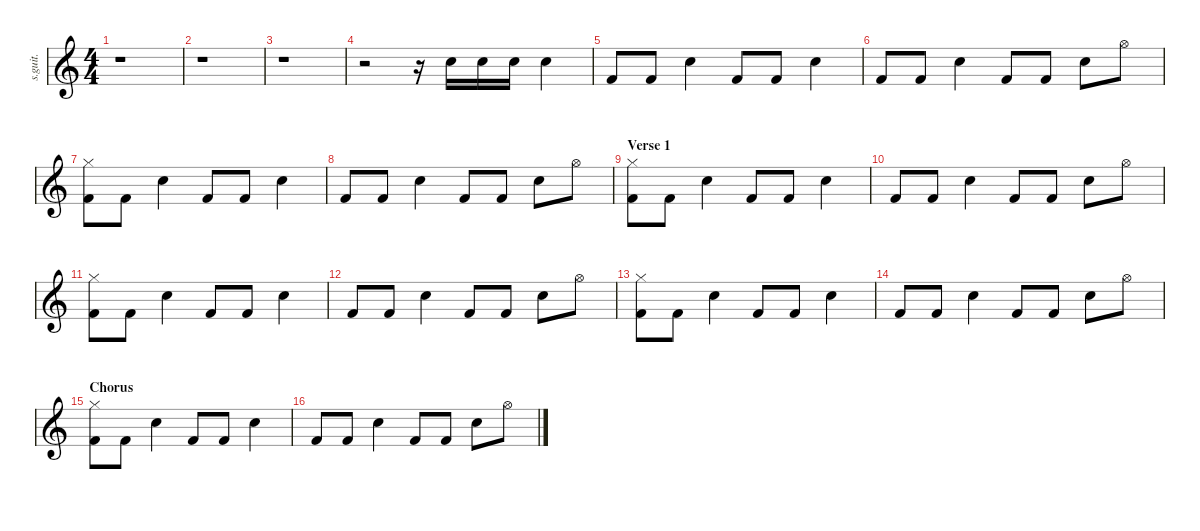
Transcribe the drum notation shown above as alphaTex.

\defaultSystemsLayout 4
\hideDynamics
\bracketExtendMode nobrackets
\track ("David Lovering" "s.guit.") {instrument percussion}
\staff {score}
\articulation defaults
\ts (4 4)
\beaming (8 2 2 2 2)
\tempo (81 hide)
\clef g2
\ks c
r.1{dy mf} |
r.1 |
r.1 |
r.2 r.16 "Snare (hit) 2".16{lyrics (0 "") lyrics (1 "") lyrics (2 "") lyrics (3 "") lyrics (4 "")} "Snare (hit) 2".16{lyrics (0 "") lyrics (1 "") lyrics (2 "") lyrics (3 "") lyrics (4 "")} "Snare (hit) 2".16{lyrics (0 "") lyrics (1 "") lyrics (2 "") lyrics (3 "") lyrics (4 "")} "Snare (hit) 2".4{lyrics (0 "") lyrics (1 "") lyrics (2 "") lyrics (3 "") lyrics (4 "")} |
"Kick (hit) 2".8{lyrics (0 "") lyrics (1 "") lyrics (2 "") lyrics (3 "") lyrics (4 "")} "Kick (hit) 2".8{lyrics (0 "") lyrics (1 "") lyrics (2 "") lyrics (3 "") lyrics (4 "")} "Snare (hit) 2".4{lyrics (0 "") lyrics (1 "") lyrics (2 "") lyrics (3 "") lyrics (4 "")} "Kick (hit) 2".8{lyrics (0 "") lyrics (1 "") lyrics (2 "") lyrics (3 "") lyrics (4 "")} "Kick (hit) 2".8{lyrics (0 "") lyrics (1 "") lyrics (2 "") lyrics (3 "") lyrics (4 "")} "Snare (hit) 2".4{lyrics (0 "") lyrics (1 "") lyrics (2 "") lyrics (3 "") lyrics (4 "")} |
"Kick (hit) 2".8{lyrics (0 "") lyrics (1 "") lyrics (2 "") lyrics (3 "") lyrics (4 "")} "Kick (hit) 2".8{lyrics (0 "") lyrics (1 "") lyrics (2 "") lyrics (3 "") lyrics (4 "")} "Snare (hit) 2".4{lyrics (0 "") lyrics (1 "") lyrics (2 "") lyrics (3 "") lyrics (4 "")} "Kick (hit) 2".8{lyrics (0 "") lyrics (1 "") lyrics (2 "") lyrics (3 "") lyrics (4 "")} "Kick (hit) 2".8{lyrics (0 "") lyrics (1 "") lyrics (2 "") lyrics (3 "") lyrics (4 "")} "Snare (hit) 2".8{lyrics (0 "") lyrics (1 "") lyrics (2 "") lyrics (3 "") lyrics (4 "")} "Hi-Hat (open)".8{lyrics (0 "") lyrics (1 "") lyrics (2 "") lyrics (3 "") lyrics (4 "")} |
("Hi-Hat (closed)" "Kick (hit) 2").8{lyrics (0 "") lyrics (1 "") lyrics (2 "") lyrics (3 "") lyrics (4 "")} "Kick (hit) 2".8{lyrics (0 "") lyrics (1 "") lyrics (2 "") lyrics (3 "") lyrics (4 "")} "Snare (hit) 2".4{lyrics (0 "") lyrics (1 "") lyrics (2 "") lyrics (3 "") lyrics (4 "")} "Kick (hit) 2".8{lyrics (0 "") lyrics (1 "") lyrics (2 "") lyrics (3 "") lyrics (4 "")} "Kick (hit) 2".8{lyrics (0 "") lyrics (1 "") lyrics (2 "") lyrics (3 "") lyrics (4 "")} "Snare (hit) 2".4{lyrics (0 "") lyrics (1 "") lyrics (2 "") lyrics (3 "") lyrics (4 "")} |
"Kick (hit) 2".8{lyrics (0 "") lyrics (1 "") lyrics (2 "") lyrics (3 "") lyrics (4 "")} "Kick (hit) 2".8{lyrics (0 "") lyrics (1 "") lyrics (2 "") lyrics (3 "") lyrics (4 "")} "Snare (hit) 2".4{lyrics (0 "") lyrics (1 "") lyrics (2 "") lyrics (3 "") lyrics (4 "")} "Kick (hit) 2".8{lyrics (0 "") lyrics (1 "") lyrics (2 "") lyrics (3 "") lyrics (4 "")} "Kick (hit) 2".8{lyrics (0 "") lyrics (1 "") lyrics (2 "") lyrics (3 "") lyrics (4 "")} "Snare (hit) 2".8{lyrics (0 "") lyrics (1 "") lyrics (2 "") lyrics (3 "") lyrics (4 "")} "Hi-Hat (open)".8{lyrics (0 "") lyrics (1 "") lyrics (2 "") lyrics (3 "") lyrics (4 "")} |
\section ("" "Verse 1")
("Kick (hit) 2" "Hi-Hat (closed)").8{lyrics (0 "") lyrics (1 "") lyrics (2 "") lyrics (3 "") lyrics (4 "")} "Kick (hit) 2".8{lyrics (0 "") lyrics (1 "") lyrics (2 "") lyrics (3 "") lyrics (4 "")} "Snare (hit) 2".4{lyrics (0 "") lyrics (1 "") lyrics (2 "") lyrics (3 "") lyrics (4 "")} "Kick (hit) 2".8{lyrics (0 "") lyrics (1 "") lyrics (2 "") lyrics (3 "") lyrics (4 "")} "Kick (hit) 2".8{lyrics (0 "") lyrics (1 "") lyrics (2 "") lyrics (3 "") lyrics (4 "")} "Snare (hit) 2".4{lyrics (0 "") lyrics (1 "") lyrics (2 "") lyrics (3 "") lyrics (4 "")} |
"Kick (hit) 2".8{lyrics (0 "") lyrics (1 "") lyrics (2 "") lyrics (3 "") lyrics (4 "")} "Kick (hit) 2".8{lyrics (0 "") lyrics (1 "") lyrics (2 "") lyrics (3 "") lyrics (4 "")} "Snare (hit) 2".4{lyrics (0 "") lyrics (1 "") lyrics (2 "") lyrics (3 "") lyrics (4 "")} "Kick (hit) 2".8{lyrics (0 "") lyrics (1 "") lyrics (2 "") lyrics (3 "") lyrics (4 "")} "Kick (hit) 2".8{lyrics (0 "") lyrics (1 "") lyrics (2 "") lyrics (3 "") lyrics (4 "")} "Snare (hit) 2".8{lyrics (0 "") lyrics (1 "") lyrics (2 "") lyrics (3 "") lyrics (4 "")} "Hi-Hat (open)".8{lyrics (0 "") lyrics (1 "") lyrics (2 "") lyrics (3 "") lyrics (4 "")} |
("Hi-Hat (closed)" "Kick (hit) 2").8{lyrics (0 "") lyrics (1 "") lyrics (2 "") lyrics (3 "") lyrics (4 "")} "Kick (hit) 2".8{lyrics (0 "") lyrics (1 "") lyrics (2 "") lyrics (3 "") lyrics (4 "")} "Snare (hit) 2".4{lyrics (0 "") lyrics (1 "") lyrics (2 "") lyrics (3 "") lyrics (4 "")} "Kick (hit) 2".8{lyrics (0 "") lyrics (1 "") lyrics (2 "") lyrics (3 "") lyrics (4 "")} "Kick (hit) 2".8{lyrics (0 "") lyrics (1 "") lyrics (2 "") lyrics (3 "") lyrics (4 "")} "Snare (hit) 2".4{lyrics (0 "") lyrics (1 "") lyrics (2 "") lyrics (3 "") lyrics (4 "")} |
"Kick (hit) 2".8{lyrics (0 "") lyrics (1 "") lyrics (2 "") lyrics (3 "") lyrics (4 "")} "Kick (hit) 2".8{lyrics (0 "") lyrics (1 "") lyrics (2 "") lyrics (3 "") lyrics (4 "")} "Snare (hit) 2".4{lyrics (0 "") lyrics (1 "") lyrics (2 "") lyrics (3 "") lyrics (4 "")} "Kick (hit) 2".8{lyrics (0 "") lyrics (1 "") lyrics (2 "") lyrics (3 "") lyrics (4 "")} "Kick (hit) 2".8{lyrics (0 "") lyrics (1 "") lyrics (2 "") lyrics (3 "") lyrics (4 "")} "Snare (hit) 2".8{lyrics (0 "") lyrics (1 "") lyrics (2 "") lyrics (3 "") lyrics (4 "")} "Hi-Hat (open)".8{lyrics (0 "") lyrics (1 "") lyrics (2 "") lyrics (3 "") lyrics (4 "")} |
("Kick (hit) 2" "Hi-Hat (closed)").8{lyrics (0 "") lyrics (1 "") lyrics (2 "") lyrics (3 "") lyrics (4 "")} "Kick (hit) 2".8{lyrics (0 "") lyrics (1 "") lyrics (2 "") lyrics (3 "") lyrics (4 "")} "Snare (hit) 2".4{lyrics (0 "") lyrics (1 "") lyrics (2 "") lyrics (3 "") lyrics (4 "")} "Kick (hit) 2".8{lyrics (0 "") lyrics (1 "") lyrics (2 "") lyrics (3 "") lyrics (4 "")} "Kick (hit) 2".8{lyrics (0 "") lyrics (1 "") lyrics (2 "") lyrics (3 "") lyrics (4 "")} "Snare (hit) 2".4{lyrics (0 "") lyrics (1 "") lyrics (2 "") lyrics (3 "") lyrics (4 "")} |
"Kick (hit) 2".8{lyrics (0 "") lyrics (1 "") lyrics (2 "") lyrics (3 "") lyrics (4 "")} "Kick (hit) 2".8{lyrics (0 "") lyrics (1 "") lyrics (2 "") lyrics (3 "") lyrics (4 "")} "Snare (hit) 2".4{lyrics (0 "") lyrics (1 "") lyrics (2 "") lyrics (3 "") lyrics (4 "")} "Kick (hit) 2".8{lyrics (0 "") lyrics (1 "") lyrics (2 "") lyrics (3 "") lyrics (4 "")} "Kick (hit) 2".8{lyrics (0 "") lyrics (1 "") lyrics (2 "") lyrics (3 "") lyrics (4 "")} "Snare (hit) 2".8{lyrics (0 "") lyrics (1 "") lyrics (2 "") lyrics (3 "") lyrics (4 "")} "Hi-Hat (open)".8{lyrics (0 "") lyrics (1 "") lyrics (2 "") lyrics (3 "") lyrics (4 "")} |
\section ("" "Chorus")
("Hi-Hat (closed)" "Kick (hit) 2").8{lyrics (0 "") lyrics (1 "") lyrics (2 "") lyrics (3 "") lyrics (4 "")} "Kick (hit) 2".8{lyrics (0 "") lyrics (1 "") lyrics (2 "") lyrics (3 "") lyrics (4 "")} "Snare (hit) 2".4{lyrics (0 "") lyrics (1 "") lyrics (2 "") lyrics (3 "") lyrics (4 "")} "Kick (hit) 2".8{lyrics (0 "") lyrics (1 "") lyrics (2 "") lyrics (3 "") lyrics (4 "")} "Kick (hit) 2".8{lyrics (0 "") lyrics (1 "") lyrics (2 "") lyrics (3 "") lyrics (4 "")} "Snare (hit) 2".4{lyrics (0 "") lyrics (1 "") lyrics (2 "") lyrics (3 "") lyrics (4 "")} |
"Kick (hit) 2".8{lyrics (0 "") lyrics (1 "") lyrics (2 "") lyrics (3 "") lyrics (4 "")} "Kick (hit) 2".8{lyrics (0 "") lyrics (1 "") lyrics (2 "") lyrics (3 "") lyrics (4 "")} "Snare (hit) 2".4{lyrics (0 "") lyrics (1 "") lyrics (2 "") lyrics (3 "") lyrics (4 "")} "Kick (hit) 2".8{lyrics (0 "") lyrics (1 "") lyrics (2 "") lyrics (3 "") lyrics (4 "")} "Kick (hit) 2".8{lyrics (0 "") lyrics (1 "") lyrics (2 "") lyrics (3 "") lyrics (4 "")} "Snare (hit) 2".8{lyrics (0 "") lyrics (1 "") lyrics (2 "") lyrics (3 "") lyrics (4 "")} "Hi-Hat (open)".8{lyrics (0 "") lyrics (1 "") lyrics (2 "") lyrics (3 "") lyrics (4 "")}
